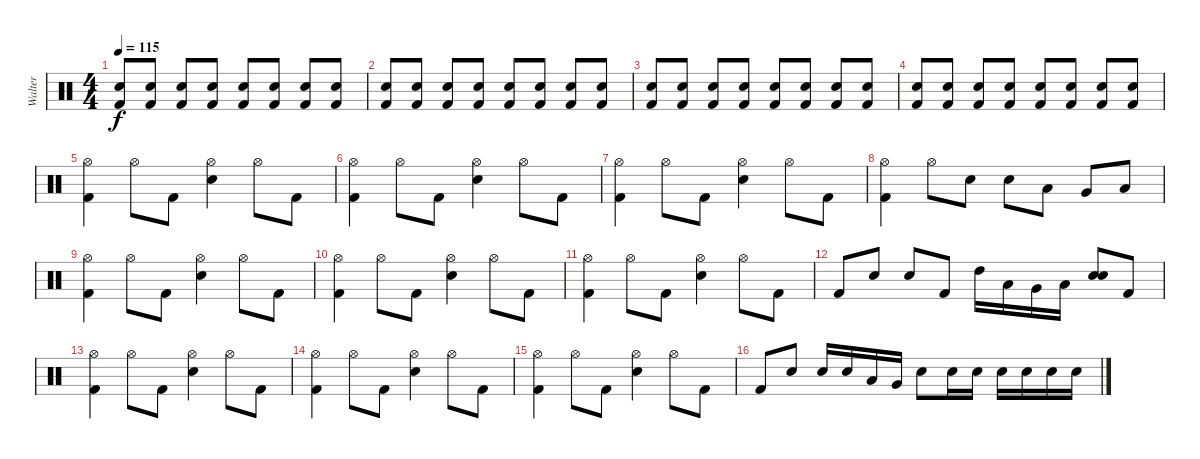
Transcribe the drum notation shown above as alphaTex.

\track ("Walter" "Walter") {instrument percussion}
\staff {score}
\articulation defaults
\ts (4 4)
\tempo 115
\clef neutral
\ks c
("Snare (hit) 2" "Kick (hit) 2").8{dy f} ("Snare (hit) 2" "Kick (hit) 2").8 ("Snare (hit) 2" "Kick (hit) 2").8 ("Snare (hit) 2" "Kick (hit) 2").8 ("Snare (hit) 2" "Kick (hit) 2").8 ("Snare (hit) 2" "Kick (hit) 2").8 ("Snare (hit) 2" "Kick (hit) 2").8 ("Snare (hit) 2" "Kick (hit) 2").8 |
("Snare (hit) 2" "Kick (hit) 2").8 ("Snare (hit) 2" "Kick (hit) 2").8 ("Snare (hit) 2" "Kick (hit) 2").8 ("Snare (hit) 2" "Kick (hit) 2").8 ("Snare (hit) 2" "Kick (hit) 2").8 ("Snare (hit) 2" "Kick (hit) 2").8 ("Snare (hit) 2" "Kick (hit) 2").8 ("Snare (hit) 2" "Kick (hit) 2").8 |
("Snare (hit) 2" "Kick (hit) 2").8 ("Snare (hit) 2" "Kick (hit) 2").8 ("Snare (hit) 2" "Kick (hit) 2").8 ("Snare (hit) 2" "Kick (hit) 2").8 ("Snare (hit) 2" "Kick (hit) 2").8 ("Snare (hit) 2" "Kick (hit) 2").8 ("Snare (hit) 2" "Kick (hit) 2").8 ("Snare (hit) 2" "Kick (hit) 2").8 |
("Snare (hit) 2" "Kick (hit) 2").8 ("Snare (hit) 2" "Kick (hit) 2").8 ("Snare (hit) 2" "Kick (hit) 2").8 ("Snare (hit) 2" "Kick (hit) 2").8 ("Snare (hit) 2" "Kick (hit) 2").8 ("Snare (hit) 2" "Kick (hit) 2").8 ("Snare (hit) 2" "Kick (hit) 2").8 ("Snare (hit) 2" "Kick (hit) 2").8 |
("Kick (hit) 2" "Hi-Hat (open)").4 "Hi-Hat (open)".8 "Kick (hit) 2".8 ("Snare (hit) 2" "Hi-Hat (open)").4 "Hi-Hat (open)".8 "Kick (hit) 2".8 |
("Kick (hit) 2" "Hi-Hat (open)").4 "Hi-Hat (open)".8 "Kick (hit) 2".8 ("Snare (hit) 2" "Hi-Hat (open)").4 "Hi-Hat (open)".8 "Kick (hit) 2".8 |
("Kick (hit) 2" "Hi-Hat (open)").4 "Hi-Hat (open)".8 "Kick (hit) 2".8 ("Snare (hit) 2" "Hi-Hat (open)").4 "Hi-Hat (open)".8 "Kick (hit) 2".8 |
("Kick (hit) 2" "Hi-Hat (open)").4 "Hi-Hat (open)".8 "Snare (hit) 2".8 "Snare (hit) 2".8 "Low Tom (hit)".8 "Very Low Tom (hit)".8 "Low Floor Tom (hit)".8 |
("Kick (hit) 2" "Hi-Hat (open)").4 "Hi-Hat (open)".8 "Kick (hit) 2".8 ("Snare (hit) 2" "Hi-Hat (open)").4 "Hi-Hat (open)".8 "Kick (hit) 2".8 |
("Kick (hit) 2" "Hi-Hat (open)").4 "Hi-Hat (open)".8 "Kick (hit) 2".8 ("Snare (hit) 2" "Hi-Hat (open)").4 "Hi-Hat (open)".8 "Kick (hit) 2".8 |
("Kick (hit) 2" "Hi-Hat (open)").4 "Hi-Hat (open)".8 "Kick (hit) 2".8 ("Snare (hit) 2" "Hi-Hat (open)").4 "Hi-Hat (open)".8 "Kick (hit) 2".8 |
"Kick (hit) 2".8 "Snare (hit) 2".8 "Snare (hit) 2".8 "Kick (hit) 2".8 "High Tom (hit)".16 "Low Tom (hit)".16 "Very Low Tom (hit)".16 "Low Floor Tom (hit)".16 ("Snare (hit) 2" "Snare (hit) 2").8{bd 480} "Kick (hit) 2".8 |
("Kick (hit) 2" "Hi-Hat (open)").4 "Hi-Hat (open)".8 "Kick (hit) 2".8 ("Snare (hit) 2" "Hi-Hat (open)").4 "Hi-Hat (open)".8 "Kick (hit) 2".8 |
("Kick (hit) 2" "Hi-Hat (open)").4 "Hi-Hat (open)".8 "Kick (hit) 2".8 ("Snare (hit) 2" "Hi-Hat (open)").4 "Hi-Hat (open)".8 "Kick (hit) 2".8 |
("Kick (hit) 2" "Hi-Hat (open)").4 "Hi-Hat (open)".8 "Kick (hit) 2".8 ("Snare (hit) 2" "Hi-Hat (open)").4 "Hi-Hat (open)".8 "Kick (hit) 2".8 |
"Kick (hit) 2".8 "Snare (hit) 2".8 "Snare (hit) 2".16 "Snare (hit) 2".16 "Low Tom (hit)".16 "Very Low Tom (hit)".16 "Snare (hit) 2".8 "Snare (hit) 2".16 "Snare (hit) 2".16 "Snare (hit) 2".16 "Snare (hit) 2".16 "Snare (hit) 2".16 "Snare (hit) 2".16
